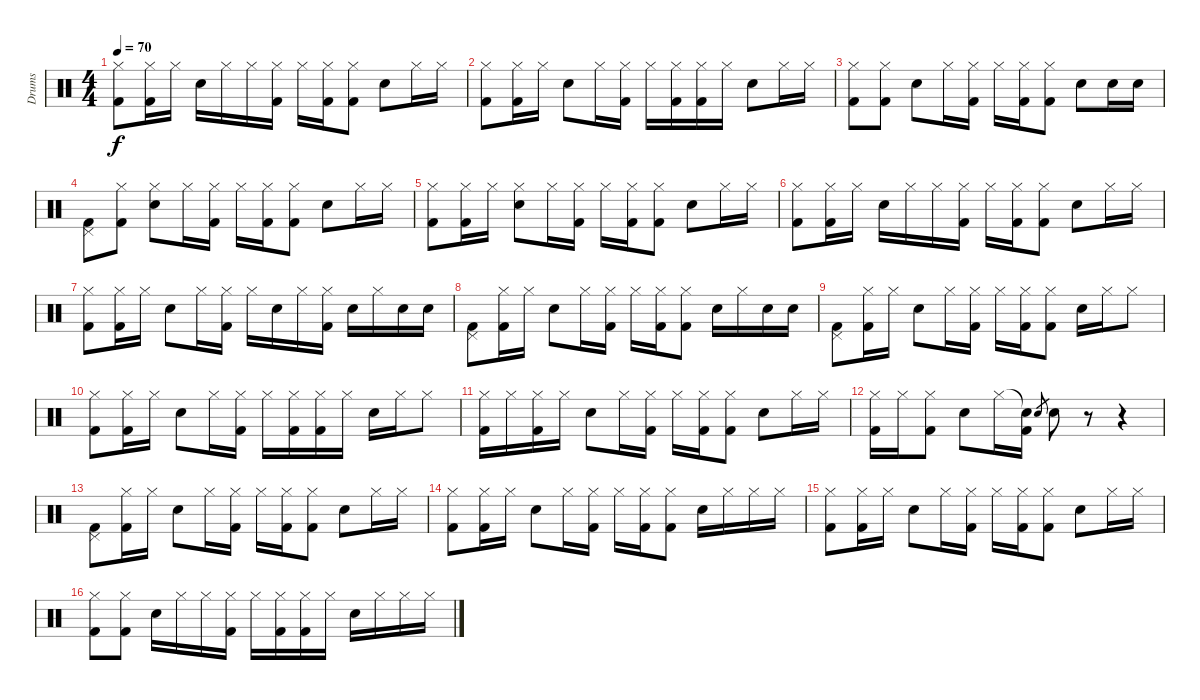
\track ("Drums" "Drums") {instrument percussion}
\staff {score}
\articulation defaults
\ts (4 4)
\tempo 70
\clef neutral
\ks c
("Hi-Hat (closed)" "Kick (hit) 2").8{dy f} ("Hi-Hat (closed)" "Kick (hit) 2").16 "Hi-Hat (closed)".16 "Snare (hit) 2".16 "Hi-Hat (closed)".16 "Hi-Hat (closed)".16 ("Hi-Hat (closed)" "Kick (hit) 2").16 "Hi-Hat (closed)".16 ("Hi-Hat (closed)" "Kick (hit) 2").16 ("Hi-Hat (closed)" "Kick (hit) 2").8 "Snare (hit) 2".8 "Hi-Hat (closed)".16 "Hi-Hat (closed)".16 |
("Hi-Hat (closed)" "Kick (hit) 2").8 ("Hi-Hat (closed)" "Kick (hit) 2").16 "Hi-Hat (closed)".16 "Snare (hit) 2".8 "Hi-Hat (closed)".16 ("Hi-Hat (closed)" "Kick (hit) 2").16 "Hi-Hat (closed)".16 ("Hi-Hat (closed)" "Kick (hit) 2").16 ("Hi-Hat (closed)" "Kick (hit) 2").16 "Hi-Hat (closed)".16 "Snare (hit) 2".8 "Hi-Hat (closed)".16 "Hi-Hat (closed)".16 |
("Hi-Hat (closed)" "Kick (hit) 2").8 ("Hi-Hat (closed)" "Kick (hit) 2").8 "Snare (hit) 2".8 "Hi-Hat (closed)".16 ("Hi-Hat (closed)" "Kick (hit) 2").16 "Hi-Hat (closed)".16 ("Hi-Hat (closed)" "Kick (hit) 2").16 ("Hi-Hat (closed)" "Kick (hit) 2").8 "Snare (hit) 2".8 "Snare (hit) 2".16 "Snare (hit) 2".16 |
("Pedal Hi-Hat (hit)" "Kick (hit) 2").8 ("Hi-Hat (closed)" "Kick (hit) 2").8 ("Hi-Hat (closed)" "Snare (hit) 2").8 "Hi-Hat (closed)".16 ("Hi-Hat (closed)" "Kick (hit) 2").16 "Hi-Hat (closed)".16 ("Hi-Hat (closed)" "Kick (hit) 2").16 ("Hi-Hat (closed)" "Kick (hit) 2").8 "Snare (hit) 2".8 "Hi-Hat (closed)".16 "Hi-Hat (closed)".16 |
("Hi-Hat (closed)" "Kick (hit) 2").8 ("Hi-Hat (closed)" "Kick (hit) 2").16 "Hi-Hat (closed)".16 ("Hi-Hat (closed)" "Snare (hit) 2").8 "Hi-Hat (closed)".16 ("Hi-Hat (closed)" "Kick (hit) 2").16 "Hi-Hat (closed)".16 ("Hi-Hat (closed)" "Kick (hit) 2").16 ("Hi-Hat (closed)" "Kick (hit) 2").8 "Snare (hit) 2".8 "Hi-Hat (closed)".16 "Hi-Hat (closed)".16 |
("Hi-Hat (closed)" "Kick (hit) 2").8 ("Hi-Hat (closed)" "Kick (hit) 2").16 "Hi-Hat (closed)".16 "Snare (hit) 2".16 "Hi-Hat (closed)".16 "Hi-Hat (closed)".16 ("Hi-Hat (closed)" "Kick (hit) 2").16 "Hi-Hat (closed)".16 ("Hi-Hat (closed)" "Kick (hit) 2").16 ("Hi-Hat (closed)" "Kick (hit) 2").8 "Snare (hit) 2".8 "Hi-Hat (closed)".16 "Hi-Hat (closed)".16 |
("Hi-Hat (closed)" "Kick (hit) 2").8 ("Hi-Hat (closed)" "Kick (hit) 2").16 "Hi-Hat (closed)".16 "Snare (hit) 2".8 "Hi-Hat (closed)".16 ("Hi-Hat (closed)" "Kick (hit) 2").16 "Hi-Hat (closed)".16 "Snare (hit) 2".16 "Hi-Hat (closed)".16 ("Hi-Hat (closed)" "Kick (hit) 2").16 "Snare (hit) 2".16 "Hi-Hat (closed)".16 "Snare (hit) 2".16 "Snare (hit) 2".16 |
("Pedal Hi-Hat (hit)" "Kick (hit) 2").8 ("Hi-Hat (closed)" "Kick (hit) 2").16 "Hi-Hat (closed)".16 "Snare (hit) 2".8 "Hi-Hat (closed)".16 ("Hi-Hat (closed)" "Kick (hit) 2").16 "Hi-Hat (closed)".16 ("Hi-Hat (closed)" "Kick (hit) 2").16 ("Hi-Hat (closed)" "Kick (hit) 2").8 "Snare (hit) 2".16 "Hi-Hat (closed)".16 "Snare (hit) 2".16 "Snare (hit) 2".16 |
("Pedal Hi-Hat (hit)" "Kick (hit) 2").8 ("Hi-Hat (closed)" "Kick (hit) 2").16 "Hi-Hat (closed)".16 "Snare (hit) 2".8 "Hi-Hat (closed)".16 ("Hi-Hat (closed)" "Kick (hit) 2").16 "Hi-Hat (closed)".16 ("Hi-Hat (closed)" "Kick (hit) 2").16 ("Hi-Hat (closed)" "Kick (hit) 2").8 "Snare (hit) 2".16 "Hi-Hat (closed)".16 "Hi-Hat (closed)".8 |
("Hi-Hat (closed)" "Kick (hit) 2").8 ("Hi-Hat (closed)" "Kick (hit) 2").16 "Hi-Hat (closed)".16 "Snare (hit) 2".8 "Hi-Hat (closed)".16 ("Hi-Hat (closed)" "Kick (hit) 2").16 "Hi-Hat (closed)".16 ("Hi-Hat (closed)" "Kick (hit) 2").16 ("Hi-Hat (closed)" "Kick (hit) 2").16 "Hi-Hat (closed)".16 "Snare (hit) 2".16 "Hi-Hat (closed)".16 "Hi-Hat (closed)".8 |
("Hi-Hat (closed)" "Kick (hit) 2").16 "Hi-Hat (closed)".16 ("Hi-Hat (closed)" "Kick (hit) 2").16 "Hi-Hat (closed)".16 "Snare (hit) 2".8 "Hi-Hat (closed)".16 ("Hi-Hat (closed)" "Kick (hit) 2").16 "Hi-Hat (closed)".16 ("Hi-Hat (closed)" "Kick (hit) 2").16 ("Hi-Hat (closed)" "Kick (hit) 2").8 "Snare (hit) 2".8 "Hi-Hat (closed)".16 "Hi-Hat (closed)".16 |
("Hi-Hat (closed)" "Kick (hit) 2").16 "Hi-Hat (closed)".16 ("Hi-Hat (closed)" "Kick (hit) 2").8 "Snare (hit) 2".8 "Hi-Hat (closed)".16 ("Snare (hit)"{t} "Kick (hit) 2").16 "Snare (hit) 2".8{gr} "Snare (hit) 2".8 r.8 r.4 |
("Pedal Hi-Hat (hit)" "Kick (hit) 2").8 ("Hi-Hat (closed)" "Kick (hit) 2").16 "Hi-Hat (closed)".16 "Snare (hit) 2".8 "Hi-Hat (closed)".16 ("Hi-Hat (closed)" "Kick (hit) 2").16 "Hi-Hat (closed)".16 ("Hi-Hat (closed)" "Kick (hit) 2").16 ("Hi-Hat (closed)" "Kick (hit) 2").8 "Snare (hit) 2".8 "Hi-Hat (closed)".16 "Hi-Hat (closed)".16 |
("Hi-Hat (closed)" "Kick (hit) 2").8 ("Hi-Hat (closed)" "Kick (hit) 2").16 "Hi-Hat (closed)".16 "Snare (hit) 2".8 "Hi-Hat (closed)".16 ("Hi-Hat (closed)" "Kick (hit) 2").16 "Hi-Hat (closed)".16 ("Hi-Hat (closed)" "Kick (hit) 2").16 ("Hi-Hat (closed)" "Kick (hit) 2").8 "Snare (hit) 2".16 "Hi-Hat (closed)".16 "Hi-Hat (closed)".16 "Hi-Hat (closed)".16 |
("Hi-Hat (closed)" "Kick (hit) 2").8 ("Hi-Hat (closed)" "Kick (hit) 2").16 "Hi-Hat (closed)".16 "Snare (hit) 2".8 "Hi-Hat (closed)".16 ("Hi-Hat (closed)" "Kick (hit) 2").16 "Hi-Hat (closed)".16 ("Hi-Hat (closed)" "Kick (hit) 2").16 ("Hi-Hat (closed)" "Kick (hit) 2").8 "Snare (hit) 2".8 "Hi-Hat (closed)".16 "Hi-Hat (closed)".16 |
("Hi-Hat (closed)" "Kick (hit) 2").8 ("Hi-Hat (closed)" "Kick (hit) 2").8 "Snare (hit) 2".16 "Hi-Hat (closed)".16 "Hi-Hat (closed)".16 ("Hi-Hat (closed)" "Kick (hit) 2").16 "Hi-Hat (closed)".16 ("Hi-Hat (closed)" "Kick (hit) 2").16 ("Hi-Hat (closed)" "Kick (hit) 2").16 "Hi-Hat (closed)".16 "Snare (hit) 2".16 "Hi-Hat (closed)".16 "Hi-Hat (closed)".16 "Hi-Hat (closed)".16
